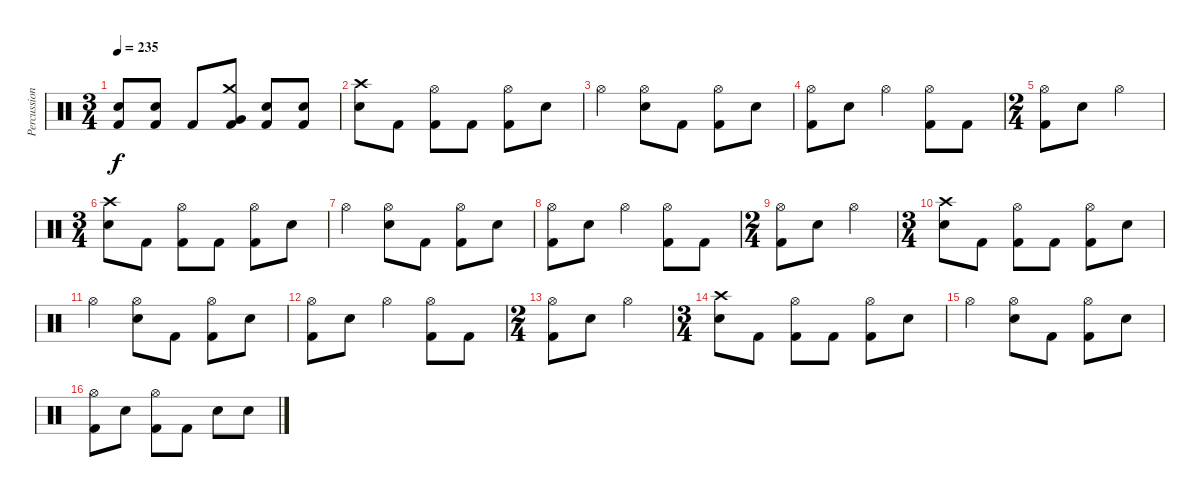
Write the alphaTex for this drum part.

\track ("Percussion" "Percussion") {instrument percussion}
\staff {score}
\articulation defaults
\ts (3 4)
\tempo 235
\clef neutral
\ks c
("Electric Snare (hit)" "Kick (hit) 2").8{dy f} ("Electric Snare (hit)" "Kick (hit) 2").8 "Kick (hit) 2".8 ("Crash medium (hit)" "Very Low Tom (hit)" "Kick (hit) 2").8 ("Electric Snare (hit)" "Kick (hit) 2").8 ("Electric Snare (hit)" "Kick (hit) 2").8 |
("Crash high (hit)" "Electric Snare (hit)").8 "Kick (hit) 2".8 ("Hi-Hat (open)" "Kick (hit) 2").8 "Kick (hit) 2".8 ("Hi-Hat (open)" "Kick (hit) 2").8 "Electric Snare (hit)".8 |
"Hi-Hat (open)".4 ("Hi-Hat (open)" "Electric Snare (hit)").8 "Kick (hit) 2".8 ("Hi-Hat (open)" "Kick (hit) 2").8 "Electric Snare (hit)".8 |
("Hi-Hat (open)" "Kick (hit) 2").8 "Electric Snare (hit)".8 "Hi-Hat (open)".4 ("Hi-Hat (open)" "Kick (hit) 2").8 "Kick (hit) 2".8 |
\ts (2 4)
("Hi-Hat (open)" "Kick (hit) 2").8 "Electric Snare (hit)".8 "Hi-Hat (open)".4 |
\ts (3 4)
("Crash high (hit)" "Electric Snare (hit)").8 "Kick (hit) 2".8 ("Hi-Hat (open)" "Kick (hit) 2").8 "Kick (hit) 2".8 ("Hi-Hat (open)" "Kick (hit) 2").8 "Electric Snare (hit)".8 |
"Hi-Hat (open)".4 ("Hi-Hat (open)" "Electric Snare (hit)").8 "Kick (hit) 2".8 ("Hi-Hat (open)" "Kick (hit) 2").8 "Electric Snare (hit)".8 |
("Hi-Hat (open)" "Kick (hit) 2").8 "Electric Snare (hit)".8 "Hi-Hat (open)".4 ("Hi-Hat (open)" "Kick (hit) 2").8 "Kick (hit) 2".8 |
\ts (2 4)
("Hi-Hat (open)" "Kick (hit) 2").8 "Electric Snare (hit)".8 "Hi-Hat (open)".4 |
\ts (3 4)
("Crash high (hit)" "Electric Snare (hit)").8 "Kick (hit) 2".8 ("Hi-Hat (open)" "Kick (hit) 2").8 "Kick (hit) 2".8 ("Hi-Hat (open)" "Kick (hit) 2").8 "Electric Snare (hit)".8 |
"Hi-Hat (open)".4 ("Hi-Hat (open)" "Electric Snare (hit)").8 "Kick (hit) 2".8 ("Hi-Hat (open)" "Kick (hit) 2").8 "Electric Snare (hit)".8 |
("Hi-Hat (open)" "Kick (hit) 2").8 "Electric Snare (hit)".8 "Hi-Hat (open)".4 ("Hi-Hat (open)" "Kick (hit) 2").8 "Kick (hit) 2".8 |
\ts (2 4)
("Hi-Hat (open)" "Kick (hit) 2").8 "Electric Snare (hit)".8 "Hi-Hat (open)".4 |
\ts (3 4)
("Crash high (hit)" "Electric Snare (hit)").8 "Kick (hit) 2".8 ("Hi-Hat (open)" "Kick (hit) 2").8 "Kick (hit) 2".8 ("Hi-Hat (open)" "Kick (hit) 2").8 "Electric Snare (hit)".8 |
"Hi-Hat (open)".4 ("Hi-Hat (open)" "Electric Snare (hit)").8 "Kick (hit) 2".8 ("Hi-Hat (open)" "Kick (hit) 2").8 "Electric Snare (hit)".8 |
("Hi-Hat (open)" "Kick (hit) 2").8 "Electric Snare (hit)".8 ("Hi-Hat (open)" "Kick (hit) 2").8 "Kick (hit) 2".8 "Electric Snare (hit)".8 "Electric Snare (hit)".8
